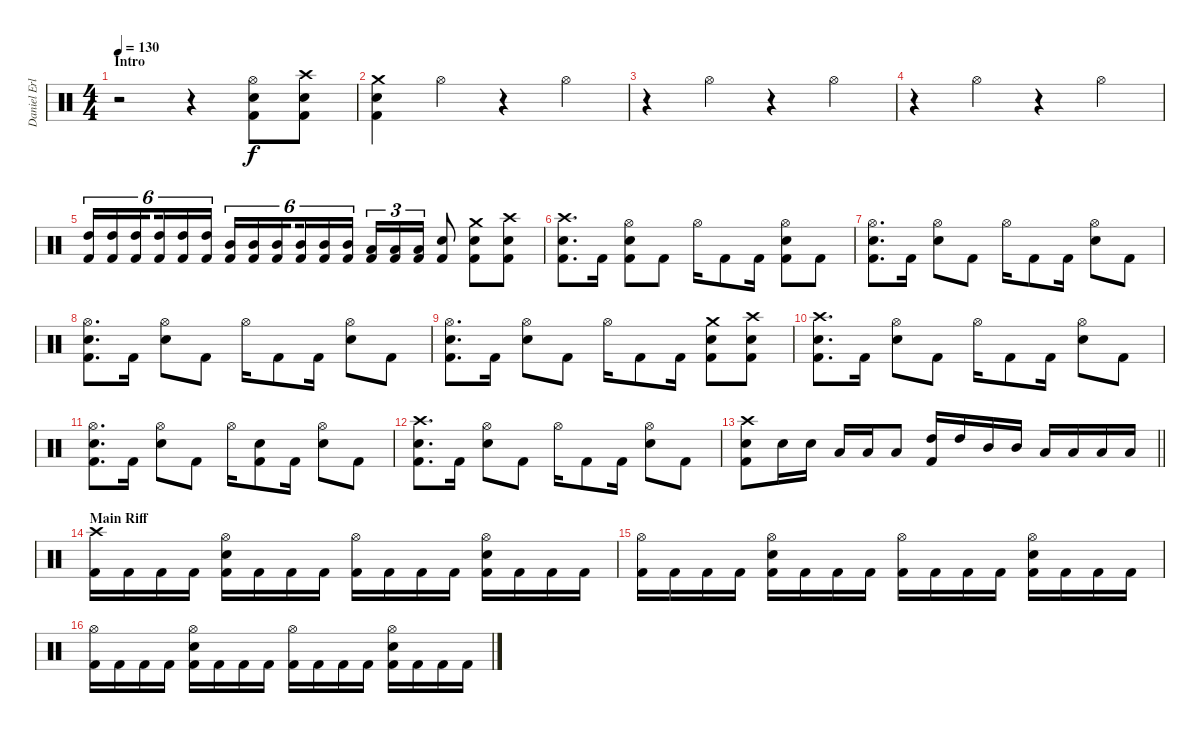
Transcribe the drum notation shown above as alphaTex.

\track ("Daniel Erlandsson" "Daniel Erl") {instrument percussion}
\staff {score}
\articulation defaults
\ts (4 4)
\section ("" "Intro")
\tempo 130
\clef neutral
\ks c
r.2{dy f} r.4 ("Hi-Hat (open)" "Snare (hit) 2" "Kick (hit) 2").8 ("Crash high (hit)" "Snare (hit) 2" "Kick (hit) 2").8 |
("Crash medium (hit)" "Snare (hit) 2" "Kick (hit) 2").4 "Hi-Hat (open)".4 r.4 "Hi-Hat (open)".4 |
r.4 "Hi-Hat (open)".4 r.4 "Hi-Hat (open)".4 |
r.4 "Hi-Hat (open)".4 r.4 "Hi-Hat (open)".4 |
("High Tom (hit)" "Kick (hit) 2").16{tu (6 4)} ("High Tom (hit)" "Kick (hit) 2").16{tu (6 4)} ("High Tom (hit)" "Kick (hit) 2").16{tu (6 4) beam splitsecondary} ("High Tom (hit)" "Kick (hit) 2").16{tu (6 4)} ("High Tom (hit)" "Kick (hit) 2").16{tu (6 4)} ("High Tom (hit)" "Kick (hit) 2").16{tu (6 4)} ("Mid Tom (hit)" "Kick (hit) 2").16{tu (6 4)} ("Mid Tom (hit)" "Kick (hit) 2").16{tu (6 4)} ("Mid Tom (hit)" "Kick (hit) 2").16{tu (6 4) beam splitsecondary} ("Mid Tom (hit)" "Kick (hit) 2").16{tu (6 4)} ("Mid Tom (hit)" "Kick (hit) 2").16{tu (6 4)} ("Mid Tom (hit)" "Kick (hit) 2").16{tu (6 4)} ("Low Tom (hit)" "Kick (hit) 2").16{tu (3 2)} ("Low Tom (hit)" "Kick (hit) 2").16{tu (3 2)} ("Low Tom (hit)" "Kick (hit) 2").16{tu (3 2)} ("Snare (hit) 2" "Kick (hit) 2").8 ("Crash medium (hit)" "Snare (hit) 2" "Kick (hit) 2").8 ("Crash high (hit)" "Snare (hit) 2" "Kick (hit) 2").8 |
("Crash high (hit)" "Snare (hit) 2" "Kick (hit) 2").8{d} "Kick (hit) 2".16 ("Hi-Hat (open)" "Snare (hit) 2" "Kick (hit) 2").8 "Kick (hit) 2".8 "Hi-Hat (open)".16 "Kick (hit) 2".8 "Kick (hit) 2".16 ("Hi-Hat (open)" "Snare (hit) 2" "Kick (hit) 2").8 "Kick (hit) 2".8 |
("Hi-Hat (open)" "Snare (hit) 2" "Kick (hit) 2").8{d} "Kick (hit) 2".16 ("Hi-Hat (open)" "Snare (hit) 2").8 "Kick (hit) 2".8 "Hi-Hat (open)".16 "Kick (hit) 2".8 "Kick (hit) 2".16 ("Hi-Hat (open)" "Snare (hit) 2").8 "Kick (hit) 2".8 |
("Hi-Hat (open)" "Snare (hit) 2" "Kick (hit) 2").8{d} "Kick (hit) 2".16 ("Hi-Hat (open)" "Snare (hit) 2").8 "Kick (hit) 2".8 "Hi-Hat (open)".16 "Kick (hit) 2".8 "Kick (hit) 2".16 ("Hi-Hat (open)" "Snare (hit) 2").8 "Kick (hit) 2".8 |
("Hi-Hat (open)" "Snare (hit) 2" "Kick (hit) 2").8{d} "Kick (hit) 2".16 ("Hi-Hat (open)" "Snare (hit) 2").8 "Kick (hit) 2".8 "Hi-Hat (open)".16 "Kick (hit) 2".8 "Kick (hit) 2".16 ("Crash medium (hit)" "Snare (hit) 2" "Kick (hit) 2").8 ("Crash high (hit)" "Snare (hit) 2" "Kick (hit) 2").8 |
("Crash high (hit)" "Snare (hit) 2" "Kick (hit) 2").8{d} "Kick (hit) 2".16 ("Hi-Hat (open)" "Snare (hit) 2").8 "Kick (hit) 2".8 "Hi-Hat (open)".16 "Kick (hit) 2".8 "Kick (hit) 2".16 ("Hi-Hat (open)" "Snare (hit) 2").8 "Kick (hit) 2".8 |
("Hi-Hat (open)" "Snare (hit) 2" "Kick (hit) 2").8{d} "Kick (hit) 2".16 ("Hi-Hat (open)" "Snare (hit) 2").8 "Kick (hit) 2".8 "Hi-Hat (open)".16 ("Snare (hit) 2" "Kick (hit) 2").8 "Kick (hit) 2".16 ("Hi-Hat (open)" "Snare (hit) 2").8 "Kick (hit) 2".8 |
("Crash high (hit)" "Snare (hit) 2" "Kick (hit) 2").8{d} "Kick (hit) 2".16 ("Hi-Hat (open)" "Snare (hit) 2").8 "Kick (hit) 2".8 "Hi-Hat (open)".16 "Kick (hit) 2".8 "Kick (hit) 2".16 ("Hi-Hat (open)" "Snare (hit) 2").8 "Kick (hit) 2".8 |
\barLineRight lightlight
("Crash high (hit)" "Snare (hit) 2" "Kick (hit) 2").8 "Snare (hit) 2".16 "Snare (hit) 2".16 "Low Tom (hit)".16 "Low Tom (hit)".16 "Low Tom (hit)".8 ("High Tom (hit)" "Kick (hit) 2").16 "High Tom (hit)".16 "Mid Tom (hit)".16 "Mid Tom (hit)".16 "Low Tom (hit)".16 "Low Tom (hit)".16 "Low Floor Tom (hit)".16 "Low Floor Tom (hit)".16 |
\section ("" "Main Riff")
("Crash high (hit)" "Kick (hit) 2").16 "Kick (hit) 2".16 "Kick (hit) 2".16 "Kick (hit) 2".16 ("Hi-Hat (open)" "Snare (hit) 2" "Kick (hit) 2").16 "Kick (hit) 2".16 "Kick (hit) 2".16 "Kick (hit) 2".16 ("Hi-Hat (open)" "Kick (hit) 2").16 "Kick (hit) 2".16 "Kick (hit) 2".16 "Kick (hit) 2".16 ("Hi-Hat (open)" "Snare (hit) 2" "Kick (hit) 2").16 "Kick (hit) 2".16 "Kick (hit) 2".16 "Kick (hit) 2".16 |
("Hi-Hat (open)" "Kick (hit) 2").16 "Kick (hit) 2".16 "Kick (hit) 2".16 "Kick (hit) 2".16 ("Hi-Hat (open)" "Snare (hit) 2" "Kick (hit) 2").16 "Kick (hit) 2".16 "Kick (hit) 2".16 "Kick (hit) 2".16 ("Hi-Hat (open)" "Kick (hit) 2").16 "Kick (hit) 2".16 "Kick (hit) 2".16 "Kick (hit) 2".16 ("Hi-Hat (open)" "Snare (hit) 2" "Kick (hit) 2").16 "Kick (hit) 2".16 "Kick (hit) 2".16 "Kick (hit) 2".16 |
("Hi-Hat (open)" "Kick (hit) 2").16 "Kick (hit) 2".16 "Kick (hit) 2".16 "Kick (hit) 2".16 ("Hi-Hat (open)" "Snare (hit) 2" "Kick (hit) 2").16 "Kick (hit) 2".16 "Kick (hit) 2".16 "Kick (hit) 2".16 ("Hi-Hat (open)" "Kick (hit) 2").16 "Kick (hit) 2".16 "Kick (hit) 2".16 "Kick (hit) 2".16 ("Hi-Hat (open)" "Snare (hit) 2" "Kick (hit) 2").16 "Kick (hit) 2".16 "Kick (hit) 2".16 "Kick (hit) 2".16
